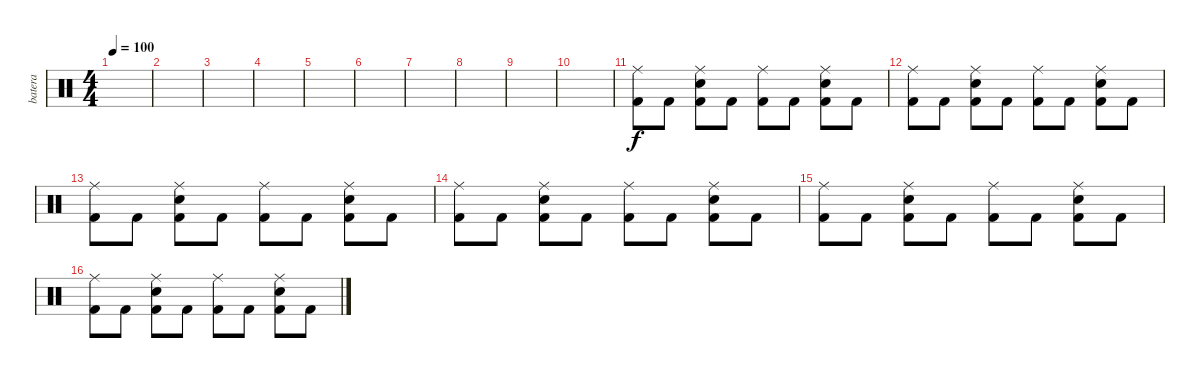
\track ("batera" "batera") {instrument percussion}
\staff {score}
\articulation defaults
\ts (4 4)
\tempo 100
\clef neutral
\ks c
|
|
|
|
|
|
|
|
|
|
("Ride (middle)" "Kick (hit) 2").8 "Kick (hit) 2".8 ("Ride (middle)" "Electric Snare (hit)" "Kick (hit) 2").8 "Kick (hit) 2".8 ("Ride (middle)" "Kick (hit) 2").8 "Kick (hit) 2".8 ("Ride (middle)" "Electric Snare (hit)" "Kick (hit) 2").8 "Kick (hit) 2".8 |
("Ride (middle)" "Kick (hit) 2").8 "Kick (hit) 2".8 ("Ride (middle)" "Electric Snare (hit)" "Kick (hit) 2").8 "Kick (hit) 2".8 ("Ride (middle)" "Kick (hit) 2").8 "Kick (hit) 2".8 ("Ride (middle)" "Electric Snare (hit)" "Kick (hit) 2").8 "Kick (hit) 2".8 |
("Ride (middle)" "Kick (hit) 2").8 "Kick (hit) 2".8 ("Ride (middle)" "Electric Snare (hit)" "Kick (hit) 2").8 "Kick (hit) 2".8 ("Ride (middle)" "Kick (hit) 2").8 "Kick (hit) 2".8 ("Ride (middle)" "Electric Snare (hit)" "Kick (hit) 2").8 "Kick (hit) 2".8 |
("Ride (middle)" "Kick (hit) 2").8 "Kick (hit) 2".8 ("Ride (middle)" "Electric Snare (hit)" "Kick (hit) 2").8 "Kick (hit) 2".8 ("Ride (middle)" "Kick (hit) 2").8 "Kick (hit) 2".8 ("Ride (middle)" "Electric Snare (hit)" "Kick (hit) 2").8 "Kick (hit) 2".8 |
("Ride (middle)" "Kick (hit) 2").8 "Kick (hit) 2".8 ("Ride (middle)" "Electric Snare (hit)" "Kick (hit) 2").8 "Kick (hit) 2".8 ("Ride (middle)" "Kick (hit) 2").8 "Kick (hit) 2".8 ("Ride (middle)" "Electric Snare (hit)" "Kick (hit) 2").8 "Kick (hit) 2".8 |
("Ride (middle)" "Kick (hit) 2").8 "Kick (hit) 2".8 ("Ride (middle)" "Electric Snare (hit)" "Kick (hit) 2").8 "Kick (hit) 2".8 ("Ride (middle)" "Kick (hit) 2").8 "Kick (hit) 2".8 ("Ride (middle)" "Electric Snare (hit)" "Kick (hit) 2").8 "Kick (hit) 2".8
